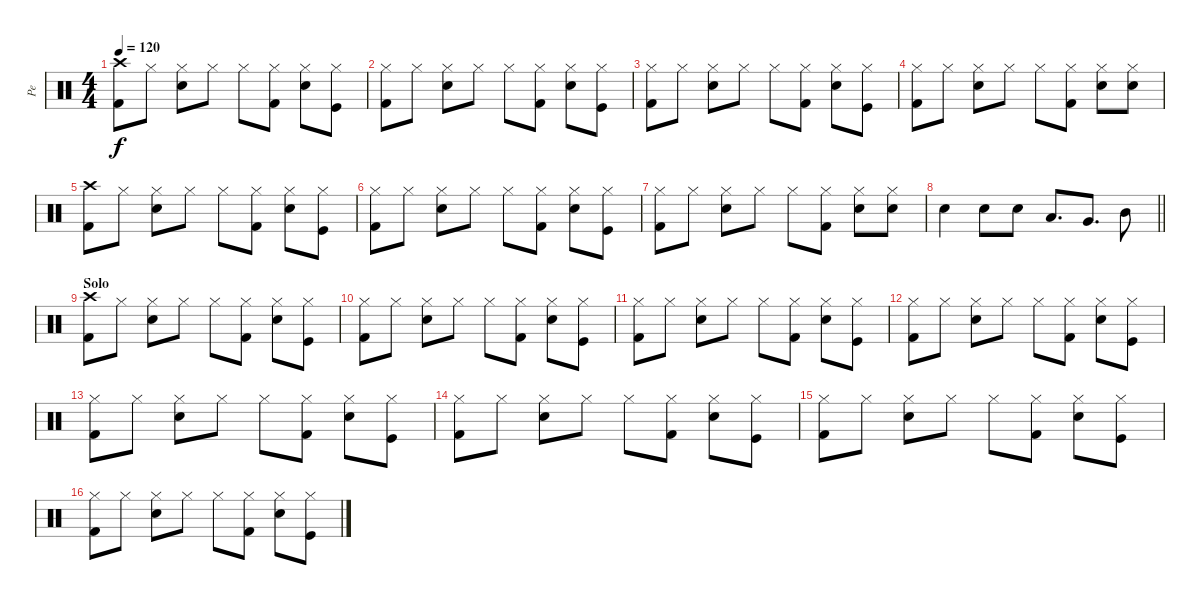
\track ("Pe" "Pe") {instrument percussion}
\staff {score}
\articulation defaults
\ts (4 4)
\tempo 120
\clef neutral
\ks c
("Kick (hit) 2" "Crash high (hit)").8{dy f} "Hi-Hat (closed)".8 ("Snare (hit) 2" "Hi-Hat (closed)").8 "Hi-Hat (closed)".8 "Hi-Hat (closed)".8 ("Kick (hit) 2" "Hi-Hat (closed)").8 ("Snare (hit) 2" "Hi-Hat (closed)").8 ("Kick (hit)" "Hi-Hat (closed)").8 |
("Kick (hit) 2" "Hi-Hat (closed)").8 "Hi-Hat (closed)".8 ("Snare (hit) 2" "Hi-Hat (closed)").8 "Hi-Hat (closed)".8 "Hi-Hat (closed)".8 ("Kick (hit) 2" "Hi-Hat (closed)").8 ("Snare (hit) 2" "Hi-Hat (closed)").8 ("Kick (hit)" "Hi-Hat (closed)").8 |
("Kick (hit) 2" "Hi-Hat (closed)").8 "Hi-Hat (closed)".8 ("Snare (hit) 2" "Hi-Hat (closed)").8 "Hi-Hat (closed)".8 "Hi-Hat (closed)".8 ("Kick (hit) 2" "Hi-Hat (closed)").8 ("Snare (hit) 2" "Hi-Hat (closed)").8 ("Kick (hit)" "Hi-Hat (closed)").8 |
("Kick (hit) 2" "Hi-Hat (closed)").8 "Hi-Hat (closed)".8 ("Snare (hit) 2" "Hi-Hat (closed)").8 "Hi-Hat (closed)".8 "Hi-Hat (closed)".8 ("Kick (hit) 2" "Hi-Hat (closed)").8 ("Snare (hit) 2" "Hi-Hat (closed)").8 ("Snare (hit) 2" "Hi-Hat (closed)").8 |
("Kick (hit) 2" "Crash high (hit)").8 "Hi-Hat (closed)".8 ("Snare (hit) 2" "Hi-Hat (closed)").8 "Hi-Hat (closed)".8 "Hi-Hat (closed)".8 ("Kick (hit) 2" "Hi-Hat (closed)").8 ("Snare (hit) 2" "Hi-Hat (closed)").8 ("Kick (hit)" "Hi-Hat (closed)").8 |
("Kick (hit) 2" "Hi-Hat (closed)").8 "Hi-Hat (closed)".8 ("Snare (hit) 2" "Hi-Hat (closed)").8 "Hi-Hat (closed)".8 "Hi-Hat (closed)".8 ("Kick (hit) 2" "Hi-Hat (closed)").8 ("Snare (hit) 2" "Hi-Hat (closed)").8 ("Kick (hit)" "Hi-Hat (closed)").8 |
("Kick (hit) 2" "Hi-Hat (closed)").8 "Hi-Hat (closed)".8 ("Snare (hit) 2" "Hi-Hat (closed)").8 "Hi-Hat (closed)".8 "Hi-Hat (closed)".8 ("Kick (hit) 2" "Hi-Hat (closed)").8 ("Snare (hit) 2" "Hi-Hat (closed)").8 ("Snare (hit) 2" "Hi-Hat (closed)").8 |
\barLineRight lightlight "Snare (hit) 2".4 "Snare (hit) 2".8 "Snare (hit) 2".8 "Low Floor Tom (hit)".8{d} "Very Low Tom (hit)".8{d} "Mid Tom (hit)".8
|
\section ("" "Solo")
("Kick (hit) 2" "Crash high (hit)").8 "Hi-Hat (closed)".8 ("Snare (hit) 2" "Hi-Hat (closed)").8 "Hi-Hat (closed)".8 "Hi-Hat (closed)".8 ("Kick (hit) 2" "Hi-Hat (closed)").8 ("Snare (hit) 2" "Hi-Hat (closed)").8 ("Kick (hit)" "Hi-Hat (closed)").8 |
("Kick (hit) 2" "Hi-Hat (closed)").8 "Hi-Hat (closed)".8 ("Snare (hit) 2" "Hi-Hat (closed)").8 "Hi-Hat (closed)".8 "Hi-Hat (closed)".8 ("Kick (hit) 2" "Hi-Hat (closed)").8 ("Snare (hit) 2" "Hi-Hat (closed)").8 ("Kick (hit)" "Hi-Hat (closed)").8 |
("Kick (hit) 2" "Hi-Hat (closed)").8 "Hi-Hat (closed)".8 ("Snare (hit) 2" "Hi-Hat (closed)").8 "Hi-Hat (closed)".8 "Hi-Hat (closed)".8 ("Kick (hit) 2" "Hi-Hat (closed)").8 ("Snare (hit) 2" "Hi-Hat (closed)").8 ("Kick (hit)" "Hi-Hat (closed)").8 |
("Kick (hit) 2" "Hi-Hat (closed)").8 "Hi-Hat (closed)".8 ("Snare (hit) 2" "Hi-Hat (closed)").8 "Hi-Hat (closed)".8 "Hi-Hat (closed)".8 ("Kick (hit) 2" "Hi-Hat (closed)").8 ("Snare (hit) 2" "Hi-Hat (closed)").8 ("Kick (hit)" "Hi-Hat (closed)").8 |
("Kick (hit) 2" "Hi-Hat (closed)").8 "Hi-Hat (closed)".8 ("Snare (hit) 2" "Hi-Hat (closed)").8 "Hi-Hat (closed)".8 "Hi-Hat (closed)".8 ("Kick (hit) 2" "Hi-Hat (closed)").8 ("Snare (hit) 2" "Hi-Hat (closed)").8 ("Kick (hit)" "Hi-Hat (closed)").8 |
("Kick (hit) 2" "Hi-Hat (closed)").8 "Hi-Hat (closed)".8 ("Snare (hit) 2" "Hi-Hat (closed)").8 "Hi-Hat (closed)".8 "Hi-Hat (closed)".8 ("Kick (hit) 2" "Hi-Hat (closed)").8 ("Snare (hit) 2" "Hi-Hat (closed)").8 ("Kick (hit)" "Hi-Hat (closed)").8 |
("Kick (hit) 2" "Hi-Hat (closed)").8 "Hi-Hat (closed)".8 ("Snare (hit) 2" "Hi-Hat (closed)").8 "Hi-Hat (closed)".8 "Hi-Hat (closed)".8 ("Kick (hit) 2" "Hi-Hat (closed)").8 ("Snare (hit) 2" "Hi-Hat (closed)").8 ("Kick (hit)" "Hi-Hat (closed)").8 |
("Kick (hit) 2" "Hi-Hat (closed)").8 "Hi-Hat (closed)".8 ("Snare (hit) 2" "Hi-Hat (closed)").8 "Hi-Hat (closed)".8 "Hi-Hat (closed)".8 ("Kick (hit) 2" "Hi-Hat (closed)").8 ("Snare (hit) 2" "Hi-Hat (closed)").8 ("Kick (hit)" "Hi-Hat (closed)").8
